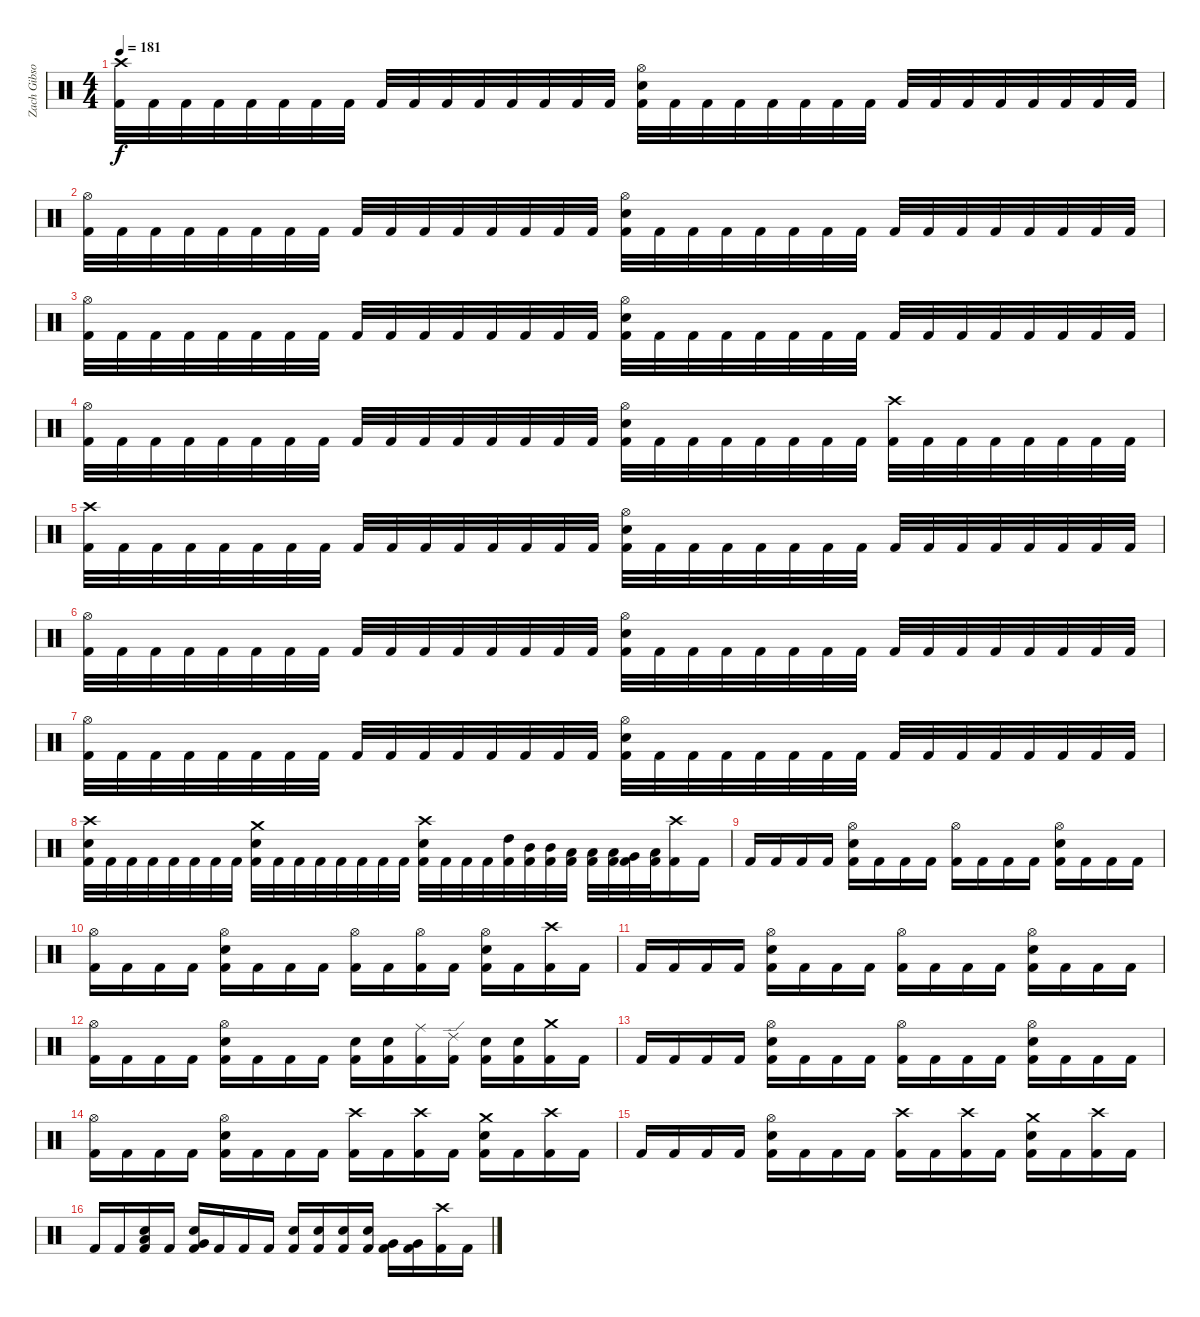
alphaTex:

\track ("Zach Gibson (Drums)" "Zach Gibso") {instrument percussion}
\staff {score}
\articulation defaults
\ts (4 4)
\tempo 181
\clef neutral
\ks c
("Crash high (hit)" "Kick (hit) 2").32{dy f} "Kick (hit) 2".32 "Kick (hit) 2".32 "Kick (hit) 2".32 "Kick (hit) 2".32 "Kick (hit) 2".32 "Kick (hit) 2".32 "Kick (hit) 2".32 "Kick (hit) 2".32 "Kick (hit) 2".32 "Kick (hit) 2".32 "Kick (hit) 2".32 "Kick (hit) 2".32 "Kick (hit) 2".32 "Kick (hit) 2".32 "Kick (hit) 2".32 ("Snare (hit) 2" "Hi-Hat (open)" "Kick (hit) 2").32 "Kick (hit) 2".32 "Kick (hit) 2".32 "Kick (hit) 2".32 "Kick (hit) 2".32 "Kick (hit) 2".32 "Kick (hit) 2".32 "Kick (hit) 2".32 "Kick (hit) 2".32 "Kick (hit) 2".32 "Kick (hit) 2".32 "Kick (hit) 2".32 "Kick (hit) 2".32 "Kick (hit) 2".32 "Kick (hit) 2".32 "Kick (hit) 2".32 |
("Hi-Hat (open)" "Kick (hit) 2").32 "Kick (hit) 2".32 "Kick (hit) 2".32 "Kick (hit) 2".32 "Kick (hit) 2".32 "Kick (hit) 2".32 "Kick (hit) 2".32 "Kick (hit) 2".32 "Kick (hit) 2".32 "Kick (hit) 2".32 "Kick (hit) 2".32 "Kick (hit) 2".32 "Kick (hit) 2".32 "Kick (hit) 2".32 "Kick (hit) 2".32 "Kick (hit) 2".32 ("Snare (hit) 2" "Hi-Hat (open)" "Kick (hit) 2").32 "Kick (hit) 2".32 "Kick (hit) 2".32 "Kick (hit) 2".32 "Kick (hit) 2".32 "Kick (hit) 2".32 "Kick (hit) 2".32 "Kick (hit) 2".32 "Kick (hit) 2".32 "Kick (hit) 2".32 "Kick (hit) 2".32 "Kick (hit) 2".32 "Kick (hit) 2".32 "Kick (hit) 2".32 "Kick (hit) 2".32 "Kick (hit) 2".32 |
("Hi-Hat (open)" "Kick (hit) 2").32 "Kick (hit) 2".32 "Kick (hit) 2".32 "Kick (hit) 2".32 "Kick (hit) 2".32 "Kick (hit) 2".32 "Kick (hit) 2".32 "Kick (hit) 2".32 "Kick (hit) 2".32 "Kick (hit) 2".32 "Kick (hit) 2".32 "Kick (hit) 2".32 "Kick (hit) 2".32 "Kick (hit) 2".32 "Kick (hit) 2".32 "Kick (hit) 2".32 ("Snare (hit) 2" "Hi-Hat (open)" "Kick (hit) 2").32 "Kick (hit) 2".32 "Kick (hit) 2".32 "Kick (hit) 2".32 "Kick (hit) 2".32 "Kick (hit) 2".32 "Kick (hit) 2".32 "Kick (hit) 2".32 "Kick (hit) 2".32 "Kick (hit) 2".32 "Kick (hit) 2".32 "Kick (hit) 2".32 "Kick (hit) 2".32 "Kick (hit) 2".32 "Kick (hit) 2".32 "Kick (hit) 2".32 |
("Hi-Hat (open)" "Kick (hit) 2").32 "Kick (hit) 2".32 "Kick (hit) 2".32 "Kick (hit) 2".32 "Kick (hit) 2".32 "Kick (hit) 2".32 "Kick (hit) 2".32 "Kick (hit) 2".32 "Kick (hit) 2".32 "Kick (hit) 2".32 "Kick (hit) 2".32 "Kick (hit) 2".32 "Kick (hit) 2".32 "Kick (hit) 2".32 "Kick (hit) 2".32 "Kick (hit) 2".32 ("Snare (hit) 2" "Hi-Hat (open)" "Kick (hit) 2").32 "Kick (hit) 2".32 "Kick (hit) 2".32 "Kick (hit) 2".32 "Kick (hit) 2".32 "Kick (hit) 2".32 "Kick (hit) 2".32 "Kick (hit) 2".32 ("Crash high (hit)" "Kick (hit) 2").32 "Kick (hit) 2".32 "Kick (hit) 2".32 "Kick (hit) 2".32 "Kick (hit) 2".32 "Kick (hit) 2".32 "Kick (hit) 2".32 "Kick (hit) 2".32 |
("Crash high (hit)" "Kick (hit) 2").32 "Kick (hit) 2".32 "Kick (hit) 2".32 "Kick (hit) 2".32 "Kick (hit) 2".32 "Kick (hit) 2".32 "Kick (hit) 2".32 "Kick (hit) 2".32 "Kick (hit) 2".32 "Kick (hit) 2".32 "Kick (hit) 2".32 "Kick (hit) 2".32 "Kick (hit) 2".32 "Kick (hit) 2".32 "Kick (hit) 2".32 "Kick (hit) 2".32 ("Snare (hit) 2" "Hi-Hat (open)" "Kick (hit) 2").32 "Kick (hit) 2".32 "Kick (hit) 2".32 "Kick (hit) 2".32 "Kick (hit) 2".32 "Kick (hit) 2".32 "Kick (hit) 2".32 "Kick (hit) 2".32 "Kick (hit) 2".32 "Kick (hit) 2".32 "Kick (hit) 2".32 "Kick (hit) 2".32 "Kick (hit) 2".32 "Kick (hit) 2".32 "Kick (hit) 2".32 "Kick (hit) 2".32 |
("Hi-Hat (open)" "Kick (hit) 2").32 "Kick (hit) 2".32 "Kick (hit) 2".32 "Kick (hit) 2".32 "Kick (hit) 2".32 "Kick (hit) 2".32 "Kick (hit) 2".32 "Kick (hit) 2".32 "Kick (hit) 2".32 "Kick (hit) 2".32 "Kick (hit) 2".32 "Kick (hit) 2".32 "Kick (hit) 2".32 "Kick (hit) 2".32 "Kick (hit) 2".32 "Kick (hit) 2".32 ("Snare (hit) 2" "Hi-Hat (open)" "Kick (hit) 2").32 "Kick (hit) 2".32 "Kick (hit) 2".32 "Kick (hit) 2".32 "Kick (hit) 2".32 "Kick (hit) 2".32 "Kick (hit) 2".32 "Kick (hit) 2".32 "Kick (hit) 2".32 "Kick (hit) 2".32 "Kick (hit) 2".32 "Kick (hit) 2".32 "Kick (hit) 2".32 "Kick (hit) 2".32 "Kick (hit) 2".32 "Kick (hit) 2".32 |
("Hi-Hat (open)" "Kick (hit) 2").32 "Kick (hit) 2".32 "Kick (hit) 2".32 "Kick (hit) 2".32 "Kick (hit) 2".32 "Kick (hit) 2".32 "Kick (hit) 2".32 "Kick (hit) 2".32 "Kick (hit) 2".32 "Kick (hit) 2".32 "Kick (hit) 2".32 "Kick (hit) 2".32 "Kick (hit) 2".32 "Kick (hit) 2".32 "Kick (hit) 2".32 "Kick (hit) 2".32 ("Snare (hit) 2" "Hi-Hat (open)" "Kick (hit) 2").32 "Kick (hit) 2".32 "Kick (hit) 2".32 "Kick (hit) 2".32 "Kick (hit) 2".32 "Kick (hit) 2".32 "Kick (hit) 2".32 "Kick (hit) 2".32 "Kick (hit) 2".32 "Kick (hit) 2".32 "Kick (hit) 2".32 "Kick (hit) 2".32 "Kick (hit) 2".32 "Kick (hit) 2".32 "Kick (hit) 2".32 "Kick (hit) 2".32 |
("Crash high (hit)" "Snare (hit) 2" "Kick (hit) 2").32 "Kick (hit) 2".32 "Kick (hit) 2".32 "Kick (hit) 2".32 "Kick (hit) 2".32 "Kick (hit) 2".32 "Kick (hit) 2".32 "Kick (hit) 2".32 ("Crash medium (hit)" "Snare (hit) 2" "Kick (hit) 2").32 "Kick (hit) 2".32 "Kick (hit) 2".32 "Kick (hit) 2".32 "Kick (hit) 2".32 "Kick (hit) 2".32 "Kick (hit) 2".32 "Kick (hit) 2".32 ("Snare (hit) 2" "Crash high (hit)" "Kick (hit) 2").32 "Kick (hit) 2".32 "Kick (hit) 2".32 "Kick (hit) 2".32 ("High Tom (hit)" "Kick (hit) 2").32 ("Mid Tom (hit)" "Kick (hit) 2").32 ("Mid Tom (hit)" "Kick (hit) 2").32 ("Low Tom (hit)" "Kick (hit) 2").32 ("Low Tom (hit)" "Kick (hit) 2").32 ("Low Tom (hit)" "Kick (hit) 2").32 ("Very Low Tom (hit)" "Kick (hit) 2").32 ("Low Floor Tom (hit)" "Kick (hit) 2").32 ("Crash high (hit)" "Kick (hit) 2").16 "Kick (hit) 2".16 |
"Kick (hit) 2".16 "Kick (hit) 2".16 "Kick (hit) 2".16 "Kick (hit) 2".16 ("Hi-Hat (open)" "Snare (hit) 2" "Kick (hit) 2").16 "Kick (hit) 2".16 "Kick (hit) 2".16 "Kick (hit) 2".16 ("Hi-Hat (open)" "Kick (hit) 2").16 "Kick (hit) 2".16 "Kick (hit) 2".16 "Kick (hit) 2".16 ("Hi-Hat (open)" "Snare (hit) 2" "Kick (hit) 2").16 "Kick (hit) 2".16 "Kick (hit) 2".16 "Kick (hit) 2".16 |
("Hi-Hat (open)" "Kick (hit) 2").16 "Kick (hit) 2".16 "Kick (hit) 2".16 "Kick (hit) 2".16 ("Hi-Hat (open)" "Snare (hit) 2" "Kick (hit) 2").16 "Kick (hit) 2".16 "Kick (hit) 2".16 "Kick (hit) 2".16 ("Hi-Hat (open)" "Kick (hit) 2").16 "Kick (hit) 2".16 ("Hi-Hat (open)" "Kick (hit) 2").16 "Kick (hit) 2".16 ("Hi-Hat (open)" "Snare (hit) 2" "Kick (hit) 2").16 "Kick (hit) 2".16 ("Crash high (hit)" "Kick (hit) 2").16 "Kick (hit) 2".16 |
"Kick (hit) 2".16 "Kick (hit) 2".16 "Kick (hit) 2".16 "Kick (hit) 2".16 ("Hi-Hat (open)" "Snare (hit) 2" "Kick (hit) 2").16 "Kick (hit) 2".16 "Kick (hit) 2".16 "Kick (hit) 2".16 ("Hi-Hat (open)" "Kick (hit) 2").16 "Kick (hit) 2".16 "Kick (hit) 2".16 "Kick (hit) 2".16 ("Hi-Hat (open)" "Snare (hit) 2" "Kick (hit) 2").16 "Kick (hit) 2".16 "Kick (hit) 2".16 "Kick (hit) 2".16 |
("Hi-Hat (open)" "Kick (hit) 2").16 "Kick (hit) 2".16 "Kick (hit) 2".16 "Kick (hit) 2".16 ("Hi-Hat (open)" "Snare (hit) 2" "Kick (hit) 2").16 "Kick (hit) 2".16 "Kick (hit) 2".16 "Kick (hit) 2".16 ("Snare (hit) 2" "Kick (hit) 2").16 ("Snare (hit) 2" "Kick (hit) 2").16 ("Ride (middle)" "Kick (hit) 2").16 ("Ride (edge) 2" "Kick (hit) 2").16 ("Snare (hit) 2" "Kick (hit) 2").16 ("Snare (hit) 2" "Kick (hit) 2").16 ("Crash medium (hit)" "Kick (hit) 2").16 "Kick (hit) 2".16 |
"Kick (hit) 2".16 "Kick (hit) 2".16 "Kick (hit) 2".16 "Kick (hit) 2".16 ("Hi-Hat (open)" "Snare (hit) 2" "Kick (hit) 2").16 "Kick (hit) 2".16 "Kick (hit) 2".16 "Kick (hit) 2".16 ("Hi-Hat (open)" "Kick (hit) 2").16 "Kick (hit) 2".16 "Kick (hit) 2".16 "Kick (hit) 2".16 ("Hi-Hat (open)" "Snare (hit) 2" "Kick (hit) 2").16 "Kick (hit) 2".16 "Kick (hit) 2".16 "Kick (hit) 2".16 |
("Hi-Hat (open)" "Kick (hit) 2").16 "Kick (hit) 2".16 "Kick (hit) 2".16 "Kick (hit) 2".16 ("Hi-Hat (open)" "Snare (hit) 2" "Kick (hit) 2").16 "Kick (hit) 2".16 "Kick (hit) 2".16 "Kick (hit) 2".16 ("Crash high (hit)" "Kick (hit) 2").16 "Kick (hit) 2".16 ("Crash high (hit)" "Kick (hit) 2").16 "Kick (hit) 2".16 ("Crash medium (hit)" "Snare (hit) 2" "Kick (hit) 2").16 "Kick (hit) 2".16 ("Crash high (hit)" "Kick (hit) 2").16 "Kick (hit) 2".16 |
"Kick (hit) 2".16 "Kick (hit) 2".16 "Kick (hit) 2".16 "Kick (hit) 2".16 ("Hi-Hat (open)" "Snare (hit) 2" "Kick (hit) 2").16 "Kick (hit) 2".16 "Kick (hit) 2".16 "Kick (hit) 2".16 ("Crash high (hit)" "Kick (hit) 2").16 "Kick (hit) 2".16 ("Crash high (hit)" "Kick (hit) 2").16 "Kick (hit) 2".16 ("Crash medium (hit)" "Snare (hit) 2" "Kick (hit) 2").16 "Kick (hit) 2".16 ("Crash high (hit)" "Kick (hit) 2").16 "Kick (hit) 2".16 |
"Kick (hit) 2".16 "Kick (hit) 2".16 ("Low Floor Tom (hit)" "Snare (hit) 2" "Kick (hit) 2").16 "Kick (hit) 2".16 ("Very Low Tom (hit)" "Snare (hit) 2" "Kick (hit) 2").16 "Kick (hit) 2".16 "Kick (hit) 2".16 "Kick (hit) 2".16 ("Snare (hit) 2" "Kick (hit) 2").16 ("Snare (hit) 2" "Kick (hit) 2").16 ("Snare (hit) 2" "Kick (hit) 2").16 ("Snare (hit) 2" "Kick (hit) 2").16 ("Very Low Tom (hit)" "Kick (hit) 2").16 ("Very Low Tom (hit)" "Kick (hit) 2").16 ("Crash high (hit)" "Kick (hit) 2").16 "Kick (hit) 2".16
